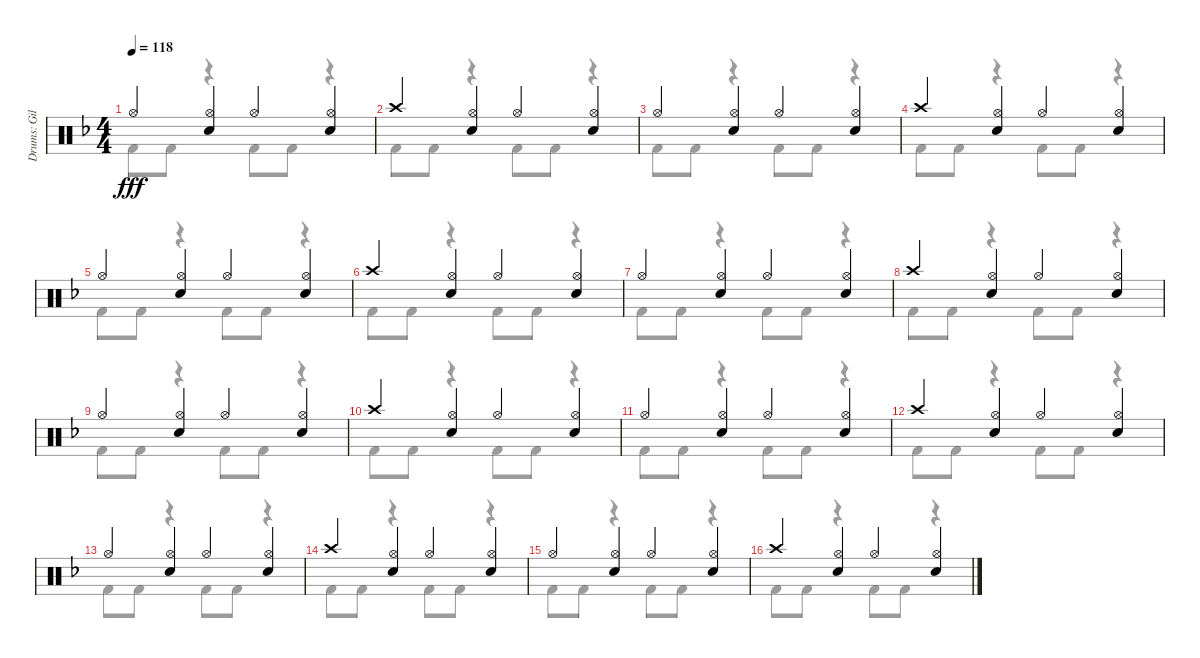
\track ("Drums: Gil" "Drums: Gil") {instrument percussion}
\staff {score}
\articulation defaults
\voice
\ts (4 4)
\tempo 118
\clef neutral
\ks f "Hi-Hat (open)".4{dy fff beam merge}
("Hi-Hat (open)" "Snare (hit) 2").4 "Hi-Hat (open)".4{beam merge} ("Hi-Hat (open)" "Snare (hit) 2").4 |
"Crash high (hit)".4{beam merge} ("Hi-Hat (open)" "Snare (hit) 2").4 "Hi-Hat (open)".4{beam merge} ("Hi-Hat (open)" "Snare (hit) 2").4 |
"Hi-Hat (open)".4{beam merge} ("Hi-Hat (open)" "Snare (hit) 2").4 "Hi-Hat (open)".4{beam merge} ("Hi-Hat (open)" "Snare (hit) 2").4 |
"Crash high (hit)".4{beam merge} ("Hi-Hat (open)" "Snare (hit) 2").4 "Hi-Hat (open)".4{beam merge} ("Hi-Hat (open)" "Snare (hit) 2").4 |
"Hi-Hat (open)".4{beam merge} ("Hi-Hat (open)" "Snare (hit) 2").4 "Hi-Hat (open)".4{beam merge} ("Hi-Hat (open)" "Snare (hit) 2").4 |
"Crash high (hit)".4{beam merge} ("Hi-Hat (open)" "Snare (hit) 2").4 "Hi-Hat (open)".4{beam merge} ("Hi-Hat (open)" "Snare (hit) 2").4 |
"Hi-Hat (open)".4{beam merge} ("Hi-Hat (open)" "Snare (hit) 2").4 "Hi-Hat (open)".4{beam merge} ("Hi-Hat (open)" "Snare (hit) 2").4 |
"Crash high (hit)".4{volume 12 beam merge} ("Hi-Hat (open)" "Snare (hit) 2").4 "Hi-Hat (open)".4{beam merge} ("Hi-Hat (open)" "Snare (hit) 2").4 |
"Hi-Hat (open)".4{beam merge} ("Hi-Hat (open)" "Snare (hit) 2").4 "Hi-Hat (open)".4{beam merge} ("Hi-Hat (open)" "Snare (hit) 2").4 |
"Crash high (hit)".4{volume 8 beam merge} ("Hi-Hat (open)" "Snare (hit) 2").4 "Hi-Hat (open)".4{beam merge} ("Hi-Hat (open)" "Snare (hit) 2").4 |
"Hi-Hat (open)".4{beam merge} ("Hi-Hat (open)" "Snare (hit) 2").4 "Hi-Hat (open)".4{beam merge} ("Hi-Hat (open)" "Snare (hit) 2").4 |
"Crash high (hit)".4{volume 4 beam merge} ("Hi-Hat (open)" "Snare (hit) 2").4 "Hi-Hat (open)".4{beam merge} ("Hi-Hat (open)" "Snare (hit) 2").4 |
"Hi-Hat (open)".4{beam merge} ("Hi-Hat (open)" "Snare (hit) 2").4 "Hi-Hat (open)".4{beam merge} ("Hi-Hat (open)" "Snare (hit) 2").4 |
"Crash high (hit)".4{volume 0 beam merge} ("Hi-Hat (open)" "Snare (hit) 2").4 "Hi-Hat (open)".4{beam merge} ("Hi-Hat (open)" "Snare (hit) 2").4 |
"Hi-Hat (open)".4{beam merge} ("Hi-Hat (open)" "Snare (hit) 2").4 "Hi-Hat (open)".4{beam merge} ("Hi-Hat (open)" "Snare (hit) 2").4 |
"Crash high (hit)".4{beam merge} ("Hi-Hat (open)" "Snare (hit) 2").4 "Hi-Hat (open)".4{beam merge} ("Hi-Hat (open)" "Snare (hit) 2").4
\voice
\clef neutral
\ottava regular
\simile none
\ks f "Kick (hit) 2".8{dy fff} "Kick (hit) 2".8
r.4 "Kick (hit) 2".8 "Kick (hit) 2".8 r.4 |
"Kick (hit) 2".8 "Kick (hit) 2".8 r.4 "Kick (hit) 2".8 "Kick (hit) 2".8 r.4 |
"Kick (hit) 2".8 "Kick (hit) 2".8 r.4 "Kick (hit) 2".8 "Kick (hit) 2".8 r.4 |
"Kick (hit) 2".8 "Kick (hit) 2".8 r.4 "Kick (hit) 2".8 "Kick (hit) 2".8 r.4 |
"Kick (hit) 2".8 "Kick (hit) 2".8 r.4 "Kick (hit) 2".8 "Kick (hit) 2".8 r.4 |
"Kick (hit) 2".8 "Kick (hit) 2".8 r.4 "Kick (hit) 2".8 "Kick (hit) 2".8 r.4 |
"Kick (hit) 2".8 "Kick (hit) 2".8 r.4 "Kick (hit) 2".8 "Kick (hit) 2".8 r.4 |
"Kick (hit) 2".8 "Kick (hit) 2".8 r.4 "Kick (hit) 2".8 "Kick (hit) 2".8 r.4 |
"Kick (hit) 2".8 "Kick (hit) 2".8 r.4 "Kick (hit) 2".8 "Kick (hit) 2".8 r.4 |
"Kick (hit) 2".8 "Kick (hit) 2".8 r.4 "Kick (hit) 2".8 "Kick (hit) 2".8 r.4 |
"Kick (hit) 2".8 "Kick (hit) 2".8 r.4 "Kick (hit) 2".8 "Kick (hit) 2".8 r.4 |
"Kick (hit) 2".8 "Kick (hit) 2".8 r.4 "Kick (hit) 2".8 "Kick (hit) 2".8 r.4 |
"Kick (hit) 2".8 "Kick (hit) 2".8 r.4 "Kick (hit) 2".8 "Kick (hit) 2".8 r.4 |
"Kick (hit) 2".8 "Kick (hit) 2".8 r.4 "Kick (hit) 2".8 "Kick (hit) 2".8 r.4 |
"Kick (hit) 2".8 "Kick (hit) 2".8 r.4 "Kick (hit) 2".8 "Kick (hit) 2".8 r.4 |
"Kick (hit) 2".8 "Kick (hit) 2".8 r.4 "Kick (hit) 2".8 "Kick (hit) 2".8 r.4
